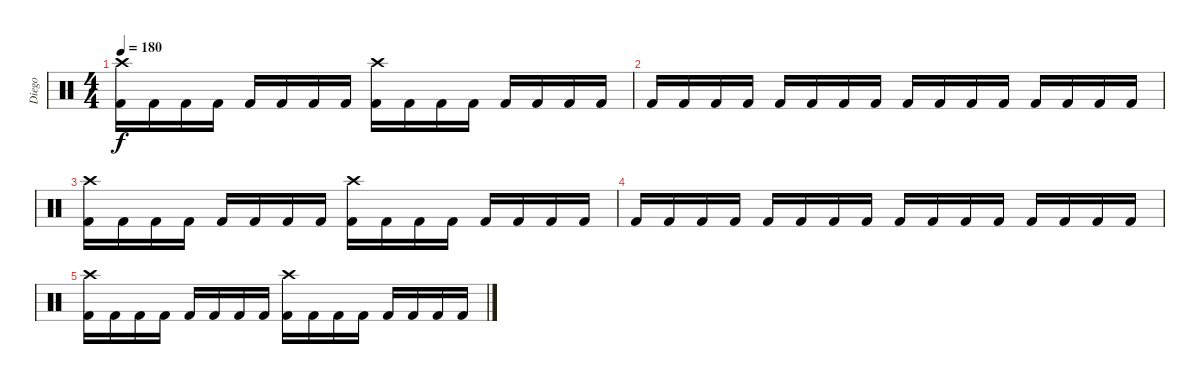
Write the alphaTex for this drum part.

\track ("Diego" "Diego") {instrument percussion}
\staff {score}
\articulation defaults
\ts (4 4)
\tempo 180
\clef neutral
\ks c
("Crash high (hit)" "Kick (hit) 2").16{dy f} "Kick (hit) 2".16 "Kick (hit) 2".16 "Kick (hit) 2".16 "Kick (hit) 2".16 "Kick (hit) 2".16 "Kick (hit) 2".16 "Kick (hit) 2".16 ("Crash high (hit)" "Kick (hit) 2").16 "Kick (hit) 2".16 "Kick (hit) 2".16 "Kick (hit) 2".16 "Kick (hit) 2".16 "Kick (hit) 2".16 "Kick (hit) 2".16 "Kick (hit) 2".16 |
"Kick (hit) 2".16 "Kick (hit) 2".16 "Kick (hit) 2".16 "Kick (hit) 2".16 "Kick (hit) 2".16 "Kick (hit) 2".16 "Kick (hit) 2".16 "Kick (hit) 2".16 "Kick (hit) 2".16 "Kick (hit) 2".16 "Kick (hit) 2".16 "Kick (hit) 2".16 "Kick (hit) 2".16 "Kick (hit) 2".16 "Kick (hit) 2".16 "Kick (hit) 2".16 |
("Crash high (hit)" "Kick (hit) 2").16 "Kick (hit) 2".16 "Kick (hit) 2".16 "Kick (hit) 2".16 "Kick (hit) 2".16 "Kick (hit) 2".16 "Kick (hit) 2".16 "Kick (hit) 2".16 ("Crash high (hit)" "Kick (hit) 2").16 "Kick (hit) 2".16 "Kick (hit) 2".16 "Kick (hit) 2".16 "Kick (hit) 2".16 "Kick (hit) 2".16 "Kick (hit) 2".16 "Kick (hit) 2".16 |
"Kick (hit) 2".16 "Kick (hit) 2".16 "Kick (hit) 2".16 "Kick (hit) 2".16 "Kick (hit) 2".16 "Kick (hit) 2".16 "Kick (hit) 2".16 "Kick (hit) 2".16 "Kick (hit) 2".16 "Kick (hit) 2".16 "Kick (hit) 2".16 "Kick (hit) 2".16 "Kick (hit) 2".16 "Kick (hit) 2".16 "Kick (hit) 2".16 "Kick (hit) 2".16 |
("Crash high (hit)" "Kick (hit) 2").16 "Kick (hit) 2".16 "Kick (hit) 2".16 "Kick (hit) 2".16 "Kick (hit) 2".16 "Kick (hit) 2".16 "Kick (hit) 2".16 "Kick (hit) 2".16 ("Crash high (hit)" "Kick (hit) 2").16 "Kick (hit) 2".16 "Kick (hit) 2".16 "Kick (hit) 2".16 "Kick (hit) 2".16 "Kick (hit) 2".16 "Kick (hit) 2".16 "Kick (hit) 2".16
